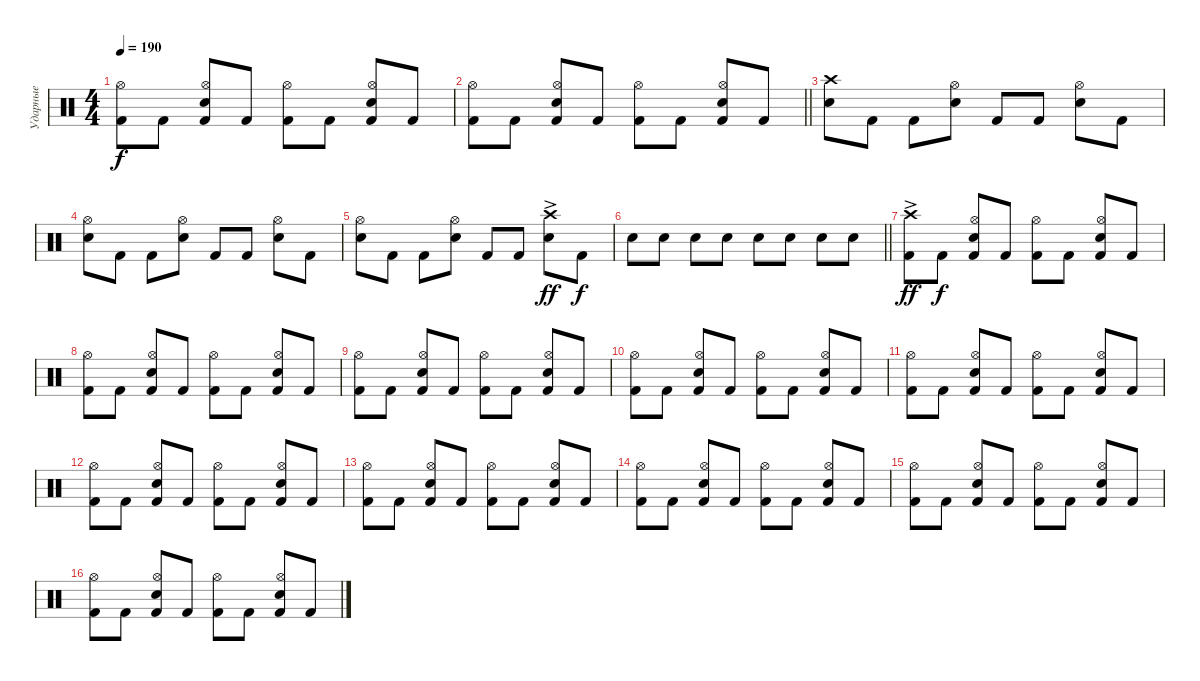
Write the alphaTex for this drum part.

\track ("Ударные" "Ударные") {instrument percussion}
\staff
\articulation defaults
\ts (4 4)
\tempo 190
\clef neutral
\ks c
("Kick (hit) 2" "Hi-Hat (open)").8{dy f} "Kick (hit) 2".8 ("Kick (hit) 2" "Snare (hit) 2" "Hi-Hat (open)").8 "Kick (hit) 2".8 ("Kick (hit) 2" "Hi-Hat (open)").8 "Kick (hit) 2".8 ("Kick (hit) 2" "Snare (hit) 2" "Hi-Hat (open)").8 "Kick (hit) 2".8 |
\barLineRight lightlight
("Kick (hit) 2" "Hi-Hat (open)").8 "Kick (hit) 2".8 ("Kick (hit) 2" "Snare (hit) 2" "Hi-Hat (open)").8 "Kick (hit) 2".8 ("Kick (hit) 2" "Hi-Hat (open)").8 "Kick (hit) 2".8 ("Kick (hit) 2" "Snare (hit) 2" "Hi-Hat (open)").8 "Kick (hit) 2".8 |
("Snare (hit) 2" "Crash high (hit)").8 "Kick (hit) 2".8 "Kick (hit) 2".8 ("Snare (hit) 2" "Hi-Hat (open)").8 "Kick (hit) 2".8 "Kick (hit) 2".8 ("Snare (hit) 2" "Hi-Hat (open)").8 "Kick (hit) 2".8 |
("Snare (hit) 2" "Hi-Hat (open)").8 "Kick (hit) 2".8 "Kick (hit) 2".8 ("Snare (hit) 2" "Hi-Hat (open)").8 "Kick (hit) 2".8 "Kick (hit) 2".8 ("Snare (hit) 2" "Hi-Hat (open)").8 "Kick (hit) 2".8 |
("Snare (hit) 2" "Hi-Hat (open)").8 "Kick (hit) 2".8 "Kick (hit) 2".8 ("Snare (hit) 2" "Hi-Hat (open)").8 "Kick (hit) 2".8 "Kick (hit) 2".8 ("Snare (hit) 2" "Crash high (hit)"{ac}).8{dy ff} "Kick (hit) 2".8{dy f} |
\barLineRight lightlight "Snare (hit) 2".8 "Snare (hit) 2".8 "Snare (hit) 2".8 "Snare (hit) 2".8 "Snare (hit) 2".8 "Snare (hit) 2".8 "Snare (hit) 2".8 "Snare (hit) 2".8
|
("Kick (hit) 2" "Crash high (hit)"{ac}).8{dy ff} "Kick (hit) 2".8{dy f} ("Kick (hit) 2" "Snare (hit) 2" "Hi-Hat (open)").8 "Kick (hit) 2".8 ("Kick (hit) 2" "Hi-Hat (open)").8 "Kick (hit) 2".8 ("Kick (hit) 2" "Snare (hit) 2" "Hi-Hat (open)").8 "Kick (hit) 2".8 |
("Kick (hit) 2" "Hi-Hat (open)").8 "Kick (hit) 2".8 ("Kick (hit) 2" "Snare (hit) 2" "Hi-Hat (open)").8 "Kick (hit) 2".8 ("Kick (hit) 2" "Hi-Hat (open)").8 "Kick (hit) 2".8 ("Kick (hit) 2" "Snare (hit) 2" "Hi-Hat (open)").8 "Kick (hit) 2".8 |
("Kick (hit) 2" "Hi-Hat (open)").8 "Kick (hit) 2".8 ("Kick (hit) 2" "Snare (hit) 2" "Hi-Hat (open)").8 "Kick (hit) 2".8 ("Kick (hit) 2" "Hi-Hat (open)").8 "Kick (hit) 2".8 ("Kick (hit) 2" "Snare (hit) 2" "Hi-Hat (open)").8 "Kick (hit) 2".8 |
("Kick (hit) 2" "Hi-Hat (open)").8 "Kick (hit) 2".8 ("Kick (hit) 2" "Snare (hit) 2" "Hi-Hat (open)").8 "Kick (hit) 2".8 ("Kick (hit) 2" "Hi-Hat (open)").8 "Kick (hit) 2".8 ("Kick (hit) 2" "Snare (hit) 2" "Hi-Hat (open)").8 "Kick (hit) 2".8 |
("Kick (hit) 2" "Hi-Hat (open)").8 "Kick (hit) 2".8 ("Kick (hit) 2" "Snare (hit) 2" "Hi-Hat (open)").8 "Kick (hit) 2".8 ("Kick (hit) 2" "Hi-Hat (open)").8 "Kick (hit) 2".8 ("Kick (hit) 2" "Snare (hit) 2" "Hi-Hat (open)").8 "Kick (hit) 2".8 |
("Kick (hit) 2" "Hi-Hat (open)").8 "Kick (hit) 2".8 ("Kick (hit) 2" "Snare (hit) 2" "Hi-Hat (open)").8 "Kick (hit) 2".8 ("Kick (hit) 2" "Hi-Hat (open)").8 "Kick (hit) 2".8 ("Kick (hit) 2" "Snare (hit) 2" "Hi-Hat (open)").8 "Kick (hit) 2".8 |
("Kick (hit) 2" "Hi-Hat (open)").8 "Kick (hit) 2".8 ("Kick (hit) 2" "Snare (hit) 2" "Hi-Hat (open)").8 "Kick (hit) 2".8 ("Kick (hit) 2" "Hi-Hat (open)").8 "Kick (hit) 2".8 ("Kick (hit) 2" "Snare (hit) 2" "Hi-Hat (open)").8 "Kick (hit) 2".8 |
("Kick (hit) 2" "Hi-Hat (open)").8 "Kick (hit) 2".8 ("Kick (hit) 2" "Snare (hit) 2" "Hi-Hat (open)").8 "Kick (hit) 2".8 ("Kick (hit) 2" "Hi-Hat (open)").8 "Kick (hit) 2".8 ("Kick (hit) 2" "Snare (hit) 2" "Hi-Hat (open)").8 "Kick (hit) 2".8 |
("Kick (hit) 2" "Hi-Hat (open)").8 "Kick (hit) 2".8 ("Kick (hit) 2" "Snare (hit) 2" "Hi-Hat (open)").8 "Kick (hit) 2".8 ("Kick (hit) 2" "Hi-Hat (open)").8 "Kick (hit) 2".8 ("Kick (hit) 2" "Snare (hit) 2" "Hi-Hat (open)").8 "Kick (hit) 2".8 |
("Kick (hit) 2" "Hi-Hat (open)").8 "Kick (hit) 2".8 ("Kick (hit) 2" "Snare (hit) 2" "Hi-Hat (open)").8 "Kick (hit) 2".8 ("Kick (hit) 2" "Hi-Hat (open)").8 "Kick (hit) 2".8 ("Kick (hit) 2" "Snare (hit) 2" "Hi-Hat (open)").8 "Kick (hit) 2".8
